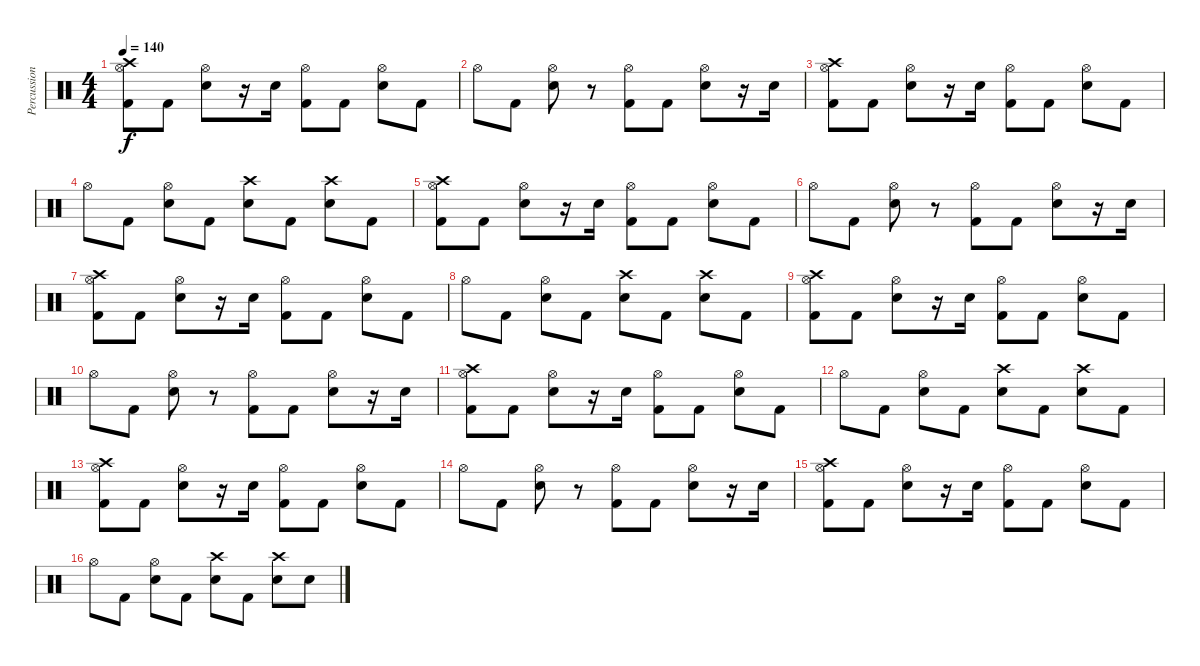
\track ("Percussion" "Percussion") {instrument percussion}
\staff {score}
\articulation defaults
\ts (4 4)
\tempo 140
\clef neutral
\ks c
("Kick (hit) 2" "Hi-Hat (open)" "Crash high (hit)").8{dy f} "Kick (hit) 2".8 ("Snare (hit) 2" "Hi-Hat (open)").8 r.16 "Snare (hit) 2".16 ("Kick (hit) 2" "Hi-Hat (open)").8 "Kick (hit) 2".8 ("Snare (hit) 2" "Hi-Hat (open)").8 "Kick (hit) 2".8 |
"Hi-Hat (open)".8 "Kick (hit) 2".8 ("Snare (hit) 2" "Hi-Hat (open)").8 r.8 ("Kick (hit) 2" "Hi-Hat (open)").8 "Kick (hit) 2".8 ("Snare (hit) 2" "Hi-Hat (open)").8 r.16 "Snare (hit) 2".16 |
("Kick (hit) 2" "Hi-Hat (open)" "Crash high (hit)").8 "Kick (hit) 2".8 ("Snare (hit) 2" "Hi-Hat (open)").8 r.16 "Snare (hit) 2".16 ("Kick (hit) 2" "Hi-Hat (open)").8 "Kick (hit) 2".8 ("Snare (hit) 2" "Hi-Hat (open)").8 "Kick (hit) 2".8 |
"Hi-Hat (open)".8 "Kick (hit) 2".8 ("Snare (hit) 2" "Hi-Hat (open)").8 "Kick (hit) 2".8 ("Snare (hit) 2" "Crash high (hit)").8 "Kick (hit) 2".8 ("Snare (hit) 2" "Crash high (hit)").8 "Kick (hit) 2".8 |
("Kick (hit) 2" "Hi-Hat (open)" "Crash high (hit)").8 "Kick (hit) 2".8 ("Snare (hit) 2" "Hi-Hat (open)").8 r.16 "Snare (hit) 2".16 ("Kick (hit) 2" "Hi-Hat (open)").8 "Kick (hit) 2".8 ("Snare (hit) 2" "Hi-Hat (open)").8 "Kick (hit) 2".8 |
"Hi-Hat (open)".8 "Kick (hit) 2".8 ("Snare (hit) 2" "Hi-Hat (open)").8 r.8 ("Kick (hit) 2" "Hi-Hat (open)").8 "Kick (hit) 2".8 ("Snare (hit) 2" "Hi-Hat (open)").8 r.16 "Snare (hit) 2".16 |
("Kick (hit) 2" "Hi-Hat (open)" "Crash high (hit)").8 "Kick (hit) 2".8 ("Snare (hit) 2" "Hi-Hat (open)").8 r.16 "Snare (hit) 2".16 ("Kick (hit) 2" "Hi-Hat (open)").8 "Kick (hit) 2".8 ("Snare (hit) 2" "Hi-Hat (open)").8 "Kick (hit) 2".8 |
"Hi-Hat (open)".8 "Kick (hit) 2".8 ("Snare (hit) 2" "Hi-Hat (open)").8 "Kick (hit) 2".8 ("Snare (hit) 2" "Crash high (hit)").8 "Kick (hit) 2".8 ("Snare (hit) 2" "Crash high (hit)").8 "Kick (hit) 2".8 |
("Kick (hit) 2" "Hi-Hat (open)" "Crash high (hit)").8 "Kick (hit) 2".8 ("Snare (hit) 2" "Hi-Hat (open)").8 r.16 "Snare (hit) 2".16 ("Kick (hit) 2" "Hi-Hat (open)").8 "Kick (hit) 2".8 ("Snare (hit) 2" "Hi-Hat (open)").8 "Kick (hit) 2".8 |
"Hi-Hat (open)".8 "Kick (hit) 2".8 ("Snare (hit) 2" "Hi-Hat (open)").8 r.8 ("Kick (hit) 2" "Hi-Hat (open)").8 "Kick (hit) 2".8 ("Snare (hit) 2" "Hi-Hat (open)").8 r.16 "Snare (hit) 2".16 |
("Kick (hit) 2" "Hi-Hat (open)" "Crash high (hit)").8 "Kick (hit) 2".8 ("Snare (hit) 2" "Hi-Hat (open)").8 r.16 "Snare (hit) 2".16 ("Kick (hit) 2" "Hi-Hat (open)").8 "Kick (hit) 2".8 ("Snare (hit) 2" "Hi-Hat (open)").8 "Kick (hit) 2".8 |
"Hi-Hat (open)".8 "Kick (hit) 2".8 ("Snare (hit) 2" "Hi-Hat (open)").8 "Kick (hit) 2".8 ("Snare (hit) 2" "Crash high (hit)").8 "Kick (hit) 2".8 ("Snare (hit) 2" "Crash high (hit)").8 "Kick (hit) 2".8 |
("Kick (hit) 2" "Hi-Hat (open)" "Crash high (hit)").8 "Kick (hit) 2".8 ("Snare (hit) 2" "Hi-Hat (open)").8 r.16 "Snare (hit) 2".16 ("Kick (hit) 2" "Hi-Hat (open)").8 "Kick (hit) 2".8 ("Snare (hit) 2" "Hi-Hat (open)").8 "Kick (hit) 2".8 |
"Hi-Hat (open)".8 "Kick (hit) 2".8 ("Snare (hit) 2" "Hi-Hat (open)").8 r.8 ("Kick (hit) 2" "Hi-Hat (open)").8 "Kick (hit) 2".8 ("Snare (hit) 2" "Hi-Hat (open)").8 r.16 "Snare (hit) 2".16 |
("Kick (hit) 2" "Hi-Hat (open)" "Crash high (hit)").8 "Kick (hit) 2".8 ("Snare (hit) 2" "Hi-Hat (open)").8 r.16 "Snare (hit) 2".16 ("Kick (hit) 2" "Hi-Hat (open)").8 "Kick (hit) 2".8 ("Snare (hit) 2" "Hi-Hat (open)").8 "Kick (hit) 2".8 |
"Hi-Hat (open)".8 "Kick (hit) 2".8 ("Snare (hit) 2" "Hi-Hat (open)").8 "Kick (hit) 2".8 ("Snare (hit) 2" "Crash high (hit)").8 "Kick (hit) 2".8 ("Snare (hit) 2" "Crash high (hit)").8 "Snare (hit) 2".8
